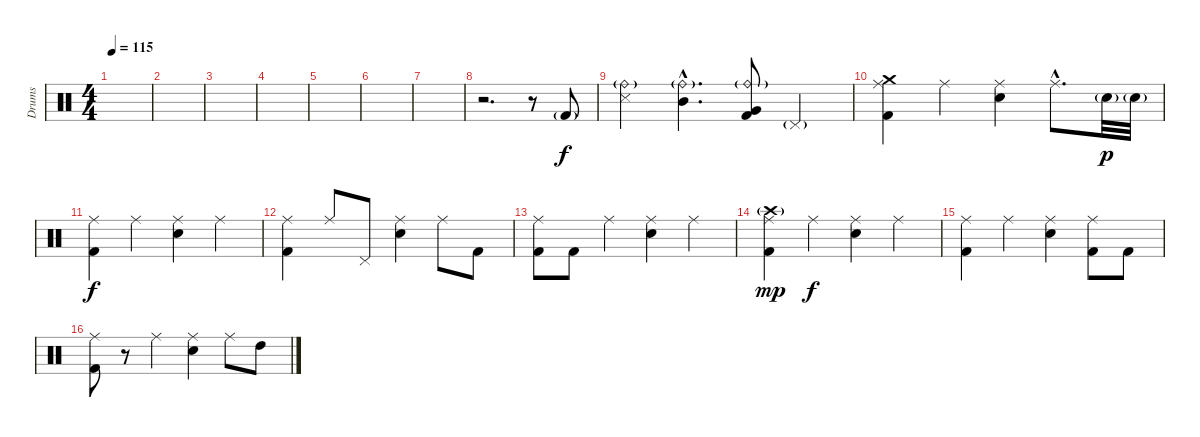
\track ("Drums" "Drums") {instrument percussion}
\staff {score}
\articulation defaults
\ts (4 4)
\tempo 115
\clef neutral
\ks c
|
|
|
|
|
|
|
r.2{d} r.8 "Kick (hit) 2"{g}.8 |
("Ride (bell)"{g} "Snare (side stick) 3").4 ("Ride (bell)"{g hac} "Mid Tom (hit)"{hac}).4{d} ("Ride (bell)"{g} "Very Low Tom (hit)" "Kick (hit) 2").8 "Pedal Hi-Hat (hit)"{g}.4 |
("Crash medium (hit)" "Ride (middle)" "Kick (hit) 2").4{dy f} "Ride (middle)".4 ("Ride (middle)" "Electric Snare (hit)").4 "Ride (middle)"{hac}.8{d} "Electric Snare (hit)"{g}.32{dy p} "Electric Snare (hit)"{g}.32 |
("Ride (middle)" "Kick (hit) 2").4{dy f} "Ride (middle)".4 ("Ride (middle)" "Electric Snare (hit)").4 "Ride (middle)".4 |
("Ride (middle)" "Kick (hit) 2").4 "Ride (middle)".8 "Pedal Hi-Hat (hit)".8 ("Ride (middle)" "Electric Snare (hit)").4 "Ride (middle)".8 "Kick (hit) 2".8 |
("Ride (middle)" "Kick (hit) 2").8 "Kick (hit) 2".8 "Ride (middle)".4 ("Ride (middle)" "Electric Snare (hit)").4 "Ride (middle)".4 |
("Crash high (hit)"{g} "Ride (middle)" "Kick (hit) 2").4{dy mp} "Ride (middle)".4{dy f} ("Ride (middle)" "Electric Snare (hit)").4 "Ride (middle)".4 |
("Ride (middle)" "Kick (hit) 2").4 "Ride (middle)".4 ("Ride (middle)" "Electric Snare (hit)").4 ("Ride (middle)" "Kick (hit) 2").8 "Kick (hit) 2".8 |
("Ride (middle)" "Kick (hit) 2").8 r.8 "Ride (middle)".4 ("Ride (middle)" "Electric Snare (hit)").4 "Ride (middle)".8 "High Tom (hit)".8
